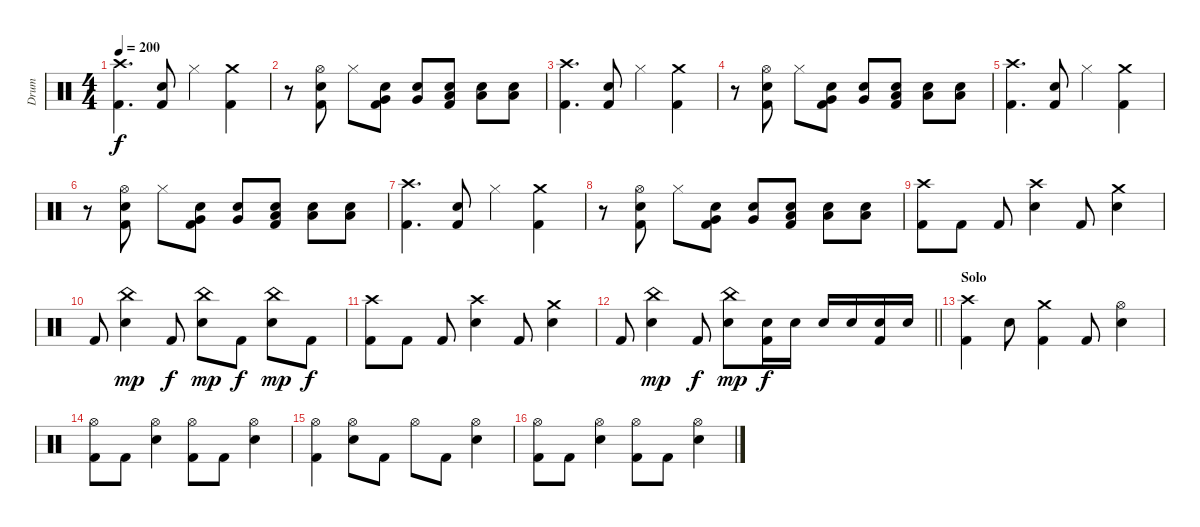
\track ("Drum" "Drum") {instrument percussion}
\staff {score}
\articulation defaults
\ts (4 4)
\tempo 200
\clef neutral
\ks c
("Crash high (hit)" "Kick (hit) 2").4{d dy f} ("Electric Snare (hit)" "Kick (hit) 2").8 "Hi-Hat (closed)".4 ("Crash medium (hit)" "Kick (hit) 2").4 |
r.8 ("Hi-Hat (open)" "Electric Snare (hit)" "Kick (hit) 2").8 "Hi-Hat (closed)".8 ("Electric Snare (hit)" "Very Low Tom (hit)" "Kick (hit) 2").8 ("Electric Snare (hit)" "Very Low Tom (hit)").8 ("Electric Snare (hit)" "Low Floor Tom (hit)" "Kick (hit) 2").8 ("Electric Snare (hit)" "Low Floor Tom (hit)").8 ("Electric Snare (hit)" "Low Floor Tom (hit)").8 |
("Crash high (hit)" "Kick (hit) 2").4{d} ("Electric Snare (hit)" "Kick (hit) 2").8 "Hi-Hat (closed)".4 ("Crash medium (hit)" "Kick (hit) 2").4 |
r.8 ("Hi-Hat (open)" "Electric Snare (hit)" "Kick (hit) 2").8 "Hi-Hat (closed)".8 ("Electric Snare (hit)" "Very Low Tom (hit)" "Kick (hit) 2").8 ("Electric Snare (hit)" "Very Low Tom (hit)").8 ("Electric Snare (hit)" "Low Floor Tom (hit)" "Kick (hit) 2").8 ("Electric Snare (hit)" "Low Floor Tom (hit)").8 ("Electric Snare (hit)" "Low Floor Tom (hit)").8 |
("Crash high (hit)" "Kick (hit) 2").4{d} ("Electric Snare (hit)" "Kick (hit) 2").8 "Hi-Hat (closed)".4 ("Crash medium (hit)" "Kick (hit) 2").4 |
r.8 ("Hi-Hat (open)" "Electric Snare (hit)" "Kick (hit) 2").8 "Hi-Hat (closed)".8 ("Electric Snare (hit)" "Very Low Tom (hit)" "Kick (hit) 2").8 ("Electric Snare (hit)" "Very Low Tom (hit)").8 ("Electric Snare (hit)" "Low Floor Tom (hit)" "Kick (hit) 2").8 ("Electric Snare (hit)" "Low Floor Tom (hit)").8 ("Electric Snare (hit)" "Low Floor Tom (hit)").8 |
("Crash high (hit)" "Kick (hit) 2").4{d} ("Electric Snare (hit)" "Kick (hit) 2").8 "Hi-Hat (closed)".4 ("Crash medium (hit)" "Kick (hit) 2").4 |
r.8 ("Hi-Hat (open)" "Electric Snare (hit)" "Kick (hit) 2").8 "Hi-Hat (closed)".8 ("Electric Snare (hit)" "Very Low Tom (hit)" "Kick (hit) 2").8 ("Electric Snare (hit)" "Very Low Tom (hit)").8 ("Electric Snare (hit)" "Low Floor Tom (hit)" "Kick (hit) 2").8 ("Electric Snare (hit)" "Low Floor Tom (hit)").8 ("Electric Snare (hit)" "Low Floor Tom (hit)").8 |
("Crash high (hit)" "Kick (hit) 2").8 "Kick (hit) 2".8 "Kick (hit) 2".8 ("Crash high (hit)" "Electric Snare (hit)").4 "Kick (hit) 2".8 ("Crash medium (hit)" "Electric Snare (hit)").4 |
"Kick (hit) 2".8 ("China (hit)" "Electric Snare (hit)").4{dy mp} "Kick (hit) 2".8{dy f} ("China (hit)" "Electric Snare (hit)").8{dy mp} "Kick (hit) 2".8{dy f} ("China (hit)" "Electric Snare (hit)").8{dy mp} "Kick (hit) 2".8{dy f} |
("Crash high (hit)" "Kick (hit) 2").8 "Kick (hit) 2".8 "Kick (hit) 2".8 ("Crash high (hit)" "Electric Snare (hit)").4 "Kick (hit) 2".8 ("Crash medium (hit)" "Electric Snare (hit)").4 |
\barLineRight lightlight "Kick (hit) 2".8
("China (hit)" "Electric Snare (hit)").4{dy mp} "Kick (hit) 2".8{dy f} ("China (hit)" "Electric Snare (hit)").8{dy mp} ("Electric Snare (hit)" "Kick (hit) 2").16{dy f} "Electric Snare (hit)".16 "Electric Snare (hit)".16 "Electric Snare (hit)".16 ("Electric Snare (hit)" "Kick (hit) 2").16 "Electric Snare (hit)".16 |
\section ("" "Solo")
("Crash high (hit)" "Kick (hit) 2").4 "Electric Snare (hit)".8 ("Crash medium (hit)" "Kick (hit) 2").4 "Kick (hit) 2".8 ("Hi-Hat (open)" "Electric Snare (hit)").4 |
("Hi-Hat (open)" "Kick (hit) 2").8 "Kick (hit) 2".8 ("Hi-Hat (open)" "Electric Snare (hit)").4 ("Hi-Hat (open)" "Kick (hit) 2").8 "Kick (hit) 2".8 ("Hi-Hat (open)" "Electric Snare (hit)").4 |
("Hi-Hat (open)" "Kick (hit) 2").4 ("Hi-Hat (open)" "Electric Snare (hit)").8 "Kick (hit) 2".8 "Hi-Hat (open)".8 "Kick (hit) 2".8 ("Hi-Hat (open)" "Electric Snare (hit)").4 |
("Hi-Hat (open)" "Kick (hit) 2").8 "Kick (hit) 2".8 ("Hi-Hat (open)" "Electric Snare (hit)").4 ("Hi-Hat (open)" "Kick (hit) 2").8 "Kick (hit) 2".8 ("Hi-Hat (open)" "Electric Snare (hit)").4
